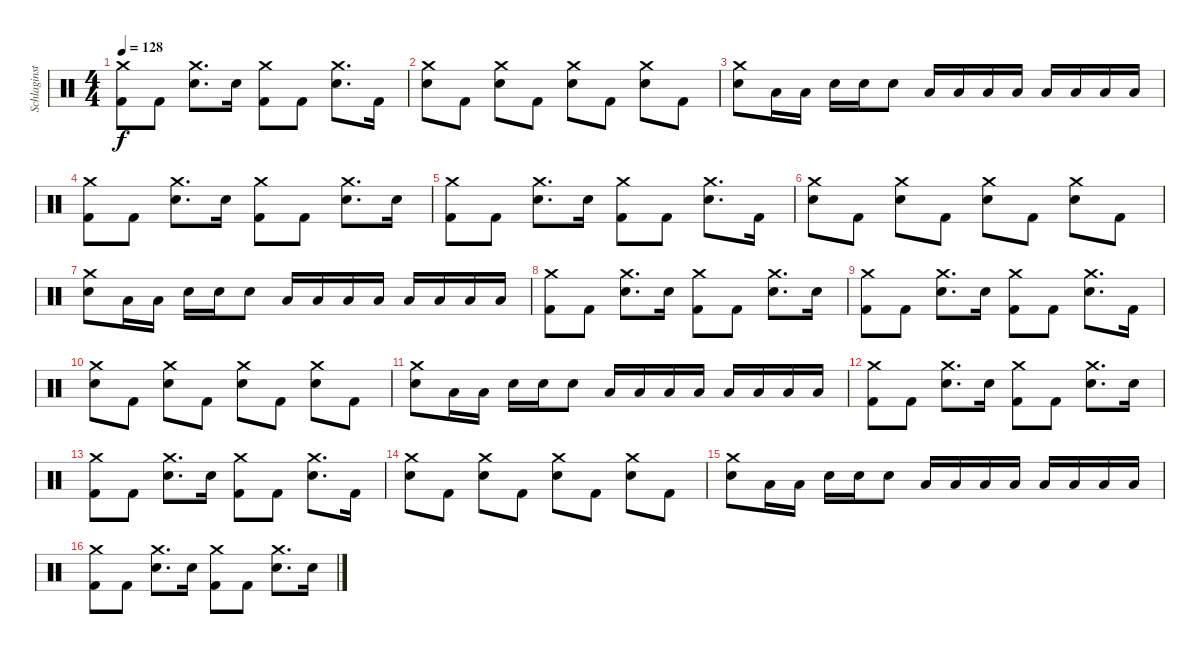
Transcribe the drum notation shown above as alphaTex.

\track ("Schlaginstrumente - Auswahl" "Schlaginst") {instrument percussion}
\staff {score}
\articulation defaults
\ts (4 4)
\tempo 128
\clef neutral
\ks c
("Crash medium (hit)" "Kick (hit) 2").8{dy f} "Kick (hit) 2".8 ("Crash medium (hit)" "Snare (hit) 2").8{d} "Snare (hit) 2".16 ("Crash medium (hit)" "Kick (hit) 2").8 "Kick (hit) 2".8 ("Crash medium (hit)" "Snare (hit) 2").8{d} "Kick (hit) 2".16 |
("Crash medium (hit)" "Snare (hit) 2").8 "Kick (hit) 2".8 ("Crash medium (hit)" "Snare (hit) 2").8 "Kick (hit) 2".8 ("Crash medium (hit)" "Snare (hit) 2").8 "Kick (hit) 2".8 ("Crash medium (hit)" "Snare (hit) 2").8 "Kick (hit) 2".8 |
("Crash medium (hit)" "Snare (hit) 2").8 "Low Tom (hit)".16 "Low Tom (hit)".16 "Snare (hit) 2".16 "Snare (hit) 2".16 "Snare (hit) 2".8 "Low Tom (hit)".16 "Low Tom (hit)".16 "Low Tom (hit)".16 "Low Tom (hit)".16 "Low Floor Tom (hit)".16 "Low Floor Tom (hit)".16 "Low Floor Tom (hit)".16 "Low Floor Tom (hit)".16 |
("Crash medium (hit)" "Kick (hit) 2").8 "Kick (hit) 2".8 ("Crash medium (hit)" "Snare (hit) 2").8{d} "Snare (hit) 2".16 ("Crash medium (hit)" "Kick (hit) 2").8 "Kick (hit) 2".8 ("Crash medium (hit)" "Snare (hit) 2").8{d} "Snare (hit) 2".16 |
("Crash medium (hit)" "Kick (hit) 2").8 "Kick (hit) 2".8 ("Crash medium (hit)" "Snare (hit) 2").8{d} "Snare (hit) 2".16 ("Crash medium (hit)" "Kick (hit) 2").8 "Kick (hit) 2".8 ("Crash medium (hit)" "Snare (hit) 2").8{d} "Kick (hit) 2".16 |
("Crash medium (hit)" "Snare (hit) 2").8 "Kick (hit) 2".8 ("Crash medium (hit)" "Snare (hit) 2").8 "Kick (hit) 2".8 ("Crash medium (hit)" "Snare (hit) 2").8 "Kick (hit) 2".8 ("Crash medium (hit)" "Snare (hit) 2").8 "Kick (hit) 2".8 |
("Crash medium (hit)" "Snare (hit) 2").8 "Low Tom (hit)".16 "Low Tom (hit)".16 "Snare (hit) 2".16 "Snare (hit) 2".16 "Snare (hit) 2".8 "Low Tom (hit)".16 "Low Tom (hit)".16 "Low Tom (hit)".16 "Low Tom (hit)".16 "Low Floor Tom (hit)".16 "Low Floor Tom (hit)".16 "Low Floor Tom (hit)".16 "Low Floor Tom (hit)".16 |
("Crash medium (hit)" "Kick (hit) 2").8 "Kick (hit) 2".8 ("Crash medium (hit)" "Snare (hit) 2").8{d} "Snare (hit) 2".16 ("Crash medium (hit)" "Kick (hit) 2").8 "Kick (hit) 2".8 ("Crash medium (hit)" "Snare (hit) 2").8{d} "Snare (hit) 2".16 |
("Crash medium (hit)" "Kick (hit) 2").8 "Kick (hit) 2".8 ("Crash medium (hit)" "Snare (hit) 2").8{d} "Snare (hit) 2".16 ("Crash medium (hit)" "Kick (hit) 2").8 "Kick (hit) 2".8 ("Crash medium (hit)" "Snare (hit) 2").8{d} "Kick (hit) 2".16 |
("Crash medium (hit)" "Snare (hit) 2").8 "Kick (hit) 2".8 ("Crash medium (hit)" "Snare (hit) 2").8 "Kick (hit) 2".8 ("Crash medium (hit)" "Snare (hit) 2").8 "Kick (hit) 2".8 ("Crash medium (hit)" "Snare (hit) 2").8 "Kick (hit) 2".8 |
("Crash medium (hit)" "Snare (hit) 2").8 "Low Tom (hit)".16 "Low Tom (hit)".16 "Snare (hit) 2".16 "Snare (hit) 2".16 "Snare (hit) 2".8 "Low Tom (hit)".16 "Low Tom (hit)".16 "Low Tom (hit)".16 "Low Tom (hit)".16 "Low Floor Tom (hit)".16 "Low Floor Tom (hit)".16 "Low Floor Tom (hit)".16 "Low Floor Tom (hit)".16 |
("Crash medium (hit)" "Kick (hit) 2").8 "Kick (hit) 2".8 ("Crash medium (hit)" "Snare (hit) 2").8{d} "Snare (hit) 2".16 ("Crash medium (hit)" "Kick (hit) 2").8 "Kick (hit) 2".8 ("Crash medium (hit)" "Snare (hit) 2").8{d} "Snare (hit) 2".16 |
("Crash medium (hit)" "Kick (hit) 2").8 "Kick (hit) 2".8 ("Crash medium (hit)" "Snare (hit) 2").8{d} "Snare (hit) 2".16 ("Crash medium (hit)" "Kick (hit) 2").8 "Kick (hit) 2".8 ("Crash medium (hit)" "Snare (hit) 2").8{d} "Kick (hit) 2".16 |
("Crash medium (hit)" "Snare (hit) 2").8 "Kick (hit) 2".8 ("Crash medium (hit)" "Snare (hit) 2").8 "Kick (hit) 2".8 ("Crash medium (hit)" "Snare (hit) 2").8 "Kick (hit) 2".8 ("Crash medium (hit)" "Snare (hit) 2").8 "Kick (hit) 2".8 |
("Crash medium (hit)" "Snare (hit) 2").8 "Low Tom (hit)".16 "Low Tom (hit)".16 "Snare (hit) 2".16 "Snare (hit) 2".16 "Snare (hit) 2".8 "Low Tom (hit)".16 "Low Tom (hit)".16 "Low Tom (hit)".16 "Low Tom (hit)".16 "Low Floor Tom (hit)".16 "Low Floor Tom (hit)".16 "Low Floor Tom (hit)".16 "Low Floor Tom (hit)".16 |
("Crash medium (hit)" "Kick (hit) 2").8 "Kick (hit) 2".8 ("Crash medium (hit)" "Snare (hit) 2").8{d} "Snare (hit) 2".16 ("Crash medium (hit)" "Kick (hit) 2").8 "Kick (hit) 2".8 ("Crash medium (hit)" "Snare (hit) 2").8{d} "Snare (hit) 2".16
